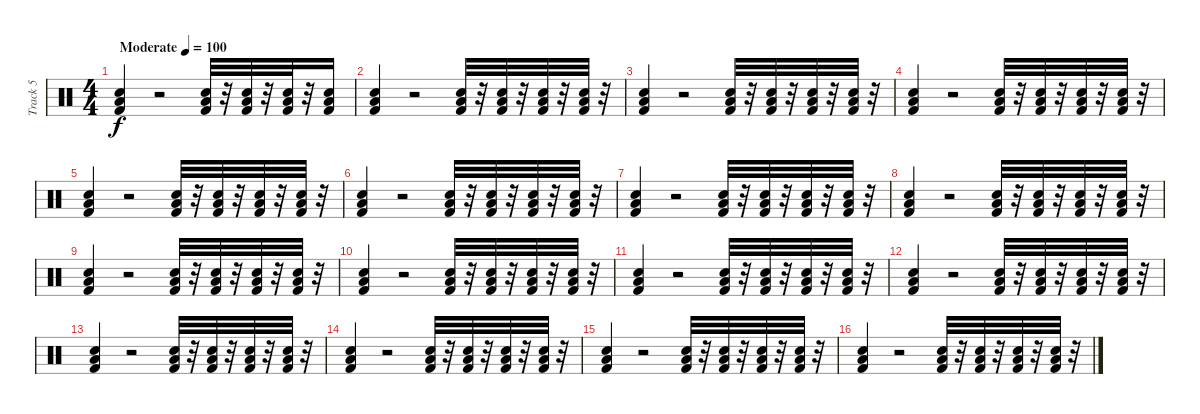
\track ("Track 5" "Track 5") {instrument percussion}
\staff {score}
\articulation defaults
\ts (4 4)
\tempo (100 "Moderate")
\clef neutral
\ks c
("Kick (hit) 2" "Low Floor Tom (hit)" "Snare (hit) 2").4{dy f} r.2 ("Snare (hit) 2" "Kick (hit) 2" "Low Floor Tom (hit)").32 r.32 ("Snare (hit) 2" "Kick (hit) 2" "Low Floor Tom (hit)").32 r.32 ("Snare (hit) 2" "Kick (hit) 2" "Low Floor Tom (hit)").32 r.32 ("Low Floor Tom (hit)" "Snare (hit) 2" "Kick (hit) 2").16 |
("Snare (hit) 2" "Kick (hit) 2" "Low Floor Tom (hit)").4 r.2 ("Snare (hit) 2" "Kick (hit) 2" "Low Floor Tom (hit)").32 r.32 ("Snare (hit) 2" "Kick (hit) 2" "Low Floor Tom (hit)").32 r.32 ("Snare (hit) 2" "Kick (hit) 2" "Low Floor Tom (hit)").32 r.32 ("Snare (hit) 2" "Kick (hit) 2" "Low Floor Tom (hit)").32 r.32 |
("Snare (hit) 2" "Kick (hit) 2" "Low Floor Tom (hit)").4 r.2 ("Snare (hit) 2" "Kick (hit) 2" "Low Floor Tom (hit)").32 r.32 ("Snare (hit) 2" "Kick (hit) 2" "Low Floor Tom (hit)").32 r.32 ("Snare (hit) 2" "Kick (hit) 2" "Low Floor Tom (hit)").32 r.32 ("Snare (hit) 2" "Kick (hit) 2" "Low Floor Tom (hit)").32 r.32 |
("Snare (hit) 2" "Low Floor Tom (hit)" "Kick (hit) 2").4 r.2 ("Snare (hit) 2" "Kick (hit) 2" "Low Floor Tom (hit)").32 r.32 ("Snare (hit) 2" "Kick (hit) 2" "Low Floor Tom (hit)").32 r.32 ("Snare (hit) 2" "Kick (hit) 2" "Low Floor Tom (hit)").32 r.32 ("Snare (hit) 2" "Kick (hit) 2" "Low Floor Tom (hit)").32 r.32 |
("Kick (hit) 2" "Low Floor Tom (hit)" "Snare (hit) 2").4 r.2 ("Snare (hit) 2" "Kick (hit) 2" "Low Floor Tom (hit)").32 r.32 ("Snare (hit) 2" "Kick (hit) 2" "Low Floor Tom (hit)").32 r.32 ("Snare (hit) 2" "Kick (hit) 2" "Low Floor Tom (hit)").32 r.32 ("Snare (hit) 2" "Kick (hit) 2" "Low Floor Tom (hit)").32 r.32 |
("Low Floor Tom (hit)" "Snare (hit) 2" "Kick (hit) 2").4 r.2 ("Snare (hit) 2" "Kick (hit) 2" "Low Floor Tom (hit)").32 r.32 ("Snare (hit) 2" "Kick (hit) 2" "Low Floor Tom (hit)").32 r.32 ("Snare (hit) 2" "Kick (hit) 2" "Low Floor Tom (hit)").32 r.32 ("Snare (hit) 2" "Kick (hit) 2" "Low Floor Tom (hit)").32 r.32 |
("Kick (hit) 2" "Low Floor Tom (hit)" "Snare (hit) 2").4 r.2 ("Snare (hit) 2" "Kick (hit) 2" "Low Floor Tom (hit)").32 r.32 ("Snare (hit) 2" "Kick (hit) 2" "Low Floor Tom (hit)").32 r.32 ("Snare (hit) 2" "Kick (hit) 2" "Low Floor Tom (hit)").32 r.32 ("Snare (hit) 2" "Kick (hit) 2" "Low Floor Tom (hit)").32 r.32 |
("Snare (hit) 2" "Low Floor Tom (hit)" "Kick (hit) 2").4 r.2 ("Snare (hit) 2" "Kick (hit) 2" "Low Floor Tom (hit)").32 r.32 ("Snare (hit) 2" "Kick (hit) 2" "Low Floor Tom (hit)").32 r.32 ("Snare (hit) 2" "Kick (hit) 2" "Low Floor Tom (hit)").32 r.32 ("Snare (hit) 2" "Kick (hit) 2" "Low Floor Tom (hit)").32 r.32 |
("Kick (hit) 2" "Low Floor Tom (hit)" "Snare (hit) 2").4 r.2 ("Snare (hit) 2" "Kick (hit) 2" "Low Floor Tom (hit)").32 r.32 ("Snare (hit) 2" "Kick (hit) 2" "Low Floor Tom (hit)").32 r.32 ("Snare (hit) 2" "Kick (hit) 2" "Low Floor Tom (hit)").32 r.32 ("Snare (hit) 2" "Kick (hit) 2" "Low Floor Tom (hit)").32 r.32 |
("Low Floor Tom (hit)" "Snare (hit) 2" "Kick (hit) 2").4 r.2 ("Snare (hit) 2" "Kick (hit) 2" "Low Floor Tom (hit)").32 r.32 ("Snare (hit) 2" "Kick (hit) 2" "Low Floor Tom (hit)").32 r.32 ("Snare (hit) 2" "Kick (hit) 2" "Low Floor Tom (hit)").32 r.32 ("Snare (hit) 2" "Kick (hit) 2" "Low Floor Tom (hit)").32 r.32 |
("Kick (hit) 2" "Low Floor Tom (hit)" "Snare (hit) 2").4 r.2 ("Snare (hit) 2" "Kick (hit) 2" "Low Floor Tom (hit)").32 r.32 ("Snare (hit) 2" "Kick (hit) 2" "Low Floor Tom (hit)").32 r.32 ("Snare (hit) 2" "Kick (hit) 2" "Low Floor Tom (hit)").32 r.32 ("Snare (hit) 2" "Kick (hit) 2" "Low Floor Tom (hit)").32 r.32 |
("Low Floor Tom (hit)" "Snare (hit) 2" "Kick (hit) 2").4 r.2 ("Snare (hit) 2" "Kick (hit) 2" "Low Floor Tom (hit)").32 r.32 ("Snare (hit) 2" "Kick (hit) 2" "Low Floor Tom (hit)").32 r.32 ("Snare (hit) 2" "Kick (hit) 2" "Low Floor Tom (hit)").32 r.32 ("Snare (hit) 2" "Kick (hit) 2" "Low Floor Tom (hit)").32 r.32 |
("Kick (hit) 2" "Low Floor Tom (hit)" "Snare (hit) 2").4 r.2 ("Snare (hit) 2" "Kick (hit) 2" "Low Floor Tom (hit)").32 r.32 ("Snare (hit) 2" "Kick (hit) 2" "Low Floor Tom (hit)").32 r.32 ("Snare (hit) 2" "Kick (hit) 2" "Low Floor Tom (hit)").32 r.32 ("Snare (hit) 2" "Kick (hit) 2" "Low Floor Tom (hit)").32 r.32 |
("Low Floor Tom (hit)" "Snare (hit) 2" "Kick (hit) 2").4 r.2 ("Snare (hit) 2" "Kick (hit) 2" "Low Floor Tom (hit)").32 r.32 ("Snare (hit) 2" "Kick (hit) 2" "Low Floor Tom (hit)").32 r.32 ("Snare (hit) 2" "Kick (hit) 2" "Low Floor Tom (hit)").32 r.32 ("Snare (hit) 2" "Kick (hit) 2" "Low Floor Tom (hit)").32 r.32 |
("Kick (hit) 2" "Low Floor Tom (hit)" "Snare (hit) 2").4 r.2 ("Snare (hit) 2" "Kick (hit) 2" "Low Floor Tom (hit)").32 r.32 ("Snare (hit) 2" "Kick (hit) 2" "Low Floor Tom (hit)").32 r.32 ("Snare (hit) 2" "Kick (hit) 2" "Low Floor Tom (hit)").32 r.32 ("Snare (hit) 2" "Kick (hit) 2" "Low Floor Tom (hit)").32 r.32 |
("Snare (hit) 2" "Low Floor Tom (hit)" "Kick (hit) 2").4 r.2 ("Snare (hit) 2" "Kick (hit) 2" "Low Floor Tom (hit)").32 r.32 ("Snare (hit) 2" "Kick (hit) 2" "Low Floor Tom (hit)").32 r.32 ("Snare (hit) 2" "Kick (hit) 2" "Low Floor Tom (hit)").32 r.32 ("Snare (hit) 2" "Kick (hit) 2" "Low Floor Tom (hit)").32 r.32
